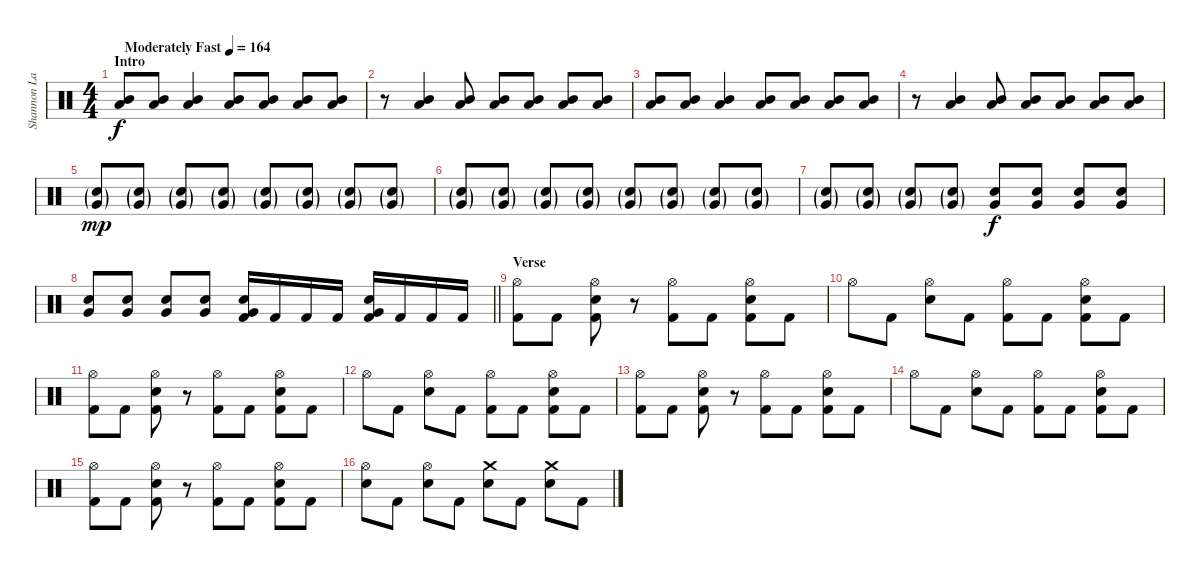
\track ("Shannon Larkin" "Shannon La") {instrument percussion}
\staff {score}
\articulation defaults
\ts (4 4)
\section ("" "Intro")
\tempo (164 "Moderately Fast")
\clef neutral
\ks c
("Mid Tom (hit)" "Low Tom (hit)").8{dy f} ("Mid Tom (hit)" "Low Tom (hit)").8 ("Mid Tom (hit)" "Low Tom (hit)").4 ("Mid Tom (hit)" "Low Tom (hit)").8 ("Mid Tom (hit)" "Low Tom (hit)").8 ("Mid Tom (hit)" "Low Tom (hit)").8 ("Mid Tom (hit)" "Low Tom (hit)").8 |
r.8 ("Mid Tom (hit)" "Low Tom (hit)").4 ("Mid Tom (hit)" "Low Tom (hit)").8 ("Mid Tom (hit)" "Low Tom (hit)").8 ("Mid Tom (hit)" "Low Tom (hit)").8 ("Mid Tom (hit)" "Low Tom (hit)").8 ("Mid Tom (hit)" "Low Tom (hit)").8 |
("Mid Tom (hit)" "Low Tom (hit)").8 ("Mid Tom (hit)" "Low Tom (hit)").8 ("Mid Tom (hit)" "Low Tom (hit)").4 ("Mid Tom (hit)" "Low Tom (hit)").8 ("Mid Tom (hit)" "Low Tom (hit)").8 ("Mid Tom (hit)" "Low Tom (hit)").8 ("Mid Tom (hit)" "Low Tom (hit)").8 |
r.8 ("Mid Tom (hit)" "Low Tom (hit)").4 ("Mid Tom (hit)" "Low Tom (hit)").8 ("Mid Tom (hit)" "Low Tom (hit)").8 ("Mid Tom (hit)" "Low Tom (hit)").8 ("Mid Tom (hit)" "Low Tom (hit)").8 ("Mid Tom (hit)" "Low Tom (hit)").8 |
("Electric Snare (hit)"{g} "Very Low Tom (hit)"{g}).8{dy mp} ("Electric Snare (hit)"{g} "Very Low Tom (hit)"{g}).8 ("Electric Snare (hit)"{g} "Very Low Tom (hit)"{g}).8 ("Electric Snare (hit)"{g} "Very Low Tom (hit)"{g}).8 ("Electric Snare (hit)"{g} "Very Low Tom (hit)"{g}).8 ("Electric Snare (hit)"{g} "Very Low Tom (hit)"{g}).8 ("Electric Snare (hit)"{g} "Very Low Tom (hit)"{g}).8 ("Electric Snare (hit)"{g} "Very Low Tom (hit)"{g}).8 |
("Electric Snare (hit)"{g} "Very Low Tom (hit)"{g}).8 ("Electric Snare (hit)"{g} "Very Low Tom (hit)"{g}).8 ("Electric Snare (hit)"{g} "Very Low Tom (hit)"{g}).8 ("Electric Snare (hit)"{g} "Very Low Tom (hit)"{g}).8 ("Electric Snare (hit)"{g} "Very Low Tom (hit)"{g}).8 ("Electric Snare (hit)"{g} "Very Low Tom (hit)"{g}).8 ("Electric Snare (hit)"{g} "Very Low Tom (hit)"{g}).8 ("Electric Snare (hit)"{g} "Very Low Tom (hit)"{g}).8 |
("Electric Snare (hit)"{g} "Very Low Tom (hit)"{g}).8 ("Electric Snare (hit)"{g} "Very Low Tom (hit)"{g}).8 ("Electric Snare (hit)"{g} "Very Low Tom (hit)"{g}).8 ("Electric Snare (hit)"{g} "Very Low Tom (hit)"{g}).8 ("Electric Snare (hit)" "Very Low Tom (hit)").8{dy f} ("Electric Snare (hit)" "Very Low Tom (hit)").8 ("Electric Snare (hit)" "Very Low Tom (hit)").8 ("Electric Snare (hit)" "Very Low Tom (hit)").8 |
\barLineRight lightlight
("Electric Snare (hit)" "Very Low Tom (hit)").8 ("Electric Snare (hit)" "Very Low Tom (hit)").8 ("Electric Snare (hit)" "Very Low Tom (hit)").8 ("Electric Snare (hit)" "Very Low Tom (hit)").8 ("Electric Snare (hit)" "Very Low Tom (hit)" "Kick (hit) 2").16 "Kick (hit) 2".16 "Kick (hit) 2".16 "Kick (hit) 2".16 ("Electric Snare (hit)" "Very Low Tom (hit)" "Kick (hit) 2").16 "Kick (hit) 2".16 "Kick (hit) 2".16 "Kick (hit) 2".16 |
\section ("" "Verse")
("Hi-Hat (open)" "Kick (hit) 2").8 "Kick (hit) 2".8 ("Hi-Hat (open)" "Electric Snare (hit)" "Kick (hit) 2").8 r.8 ("Hi-Hat (open)" "Kick (hit) 2").8 "Kick (hit) 2".8 ("Hi-Hat (open)" "Electric Snare (hit)" "Kick (hit) 2").8 "Kick (hit) 2".8 |
"Hi-Hat (open)".8 "Kick (hit) 2".8 ("Hi-Hat (open)" "Electric Snare (hit)").8 "Kick (hit) 2".8 ("Hi-Hat (open)" "Kick (hit) 2").8 "Kick (hit) 2".8 ("Hi-Hat (open)" "Electric Snare (hit)" "Kick (hit) 2").8 "Kick (hit) 2".8 |
("Hi-Hat (open)" "Kick (hit) 2").8 "Kick (hit) 2".8 ("Hi-Hat (open)" "Electric Snare (hit)" "Kick (hit) 2").8 r.8 ("Hi-Hat (open)" "Kick (hit) 2").8 "Kick (hit) 2".8 ("Hi-Hat (open)" "Electric Snare (hit)" "Kick (hit) 2").8 "Kick (hit) 2".8 |
"Hi-Hat (open)".8 "Kick (hit) 2".8 ("Hi-Hat (open)" "Electric Snare (hit)").8 "Kick (hit) 2".8 ("Hi-Hat (open)" "Kick (hit) 2").8 "Kick (hit) 2".8 ("Hi-Hat (open)" "Electric Snare (hit)" "Kick (hit) 2").8 "Kick (hit) 2".8 |
("Hi-Hat (open)" "Kick (hit) 2").8 "Kick (hit) 2".8 ("Hi-Hat (open)" "Electric Snare (hit)" "Kick (hit) 2").8 r.8 ("Hi-Hat (open)" "Kick (hit) 2").8 "Kick (hit) 2".8 ("Hi-Hat (open)" "Electric Snare (hit)" "Kick (hit) 2").8 "Kick (hit) 2".8 |
"Hi-Hat (open)".8 "Kick (hit) 2".8 ("Hi-Hat (open)" "Electric Snare (hit)").8 "Kick (hit) 2".8 ("Hi-Hat (open)" "Kick (hit) 2").8 "Kick (hit) 2".8 ("Hi-Hat (open)" "Electric Snare (hit)" "Kick (hit) 2").8 "Kick (hit) 2".8 |
("Hi-Hat (open)" "Kick (hit) 2").8 "Kick (hit) 2".8 ("Hi-Hat (open)" "Electric Snare (hit)" "Kick (hit) 2").8 r.8 ("Hi-Hat (open)" "Kick (hit) 2").8 "Kick (hit) 2".8 ("Hi-Hat (open)" "Electric Snare (hit)" "Kick (hit) 2").8 "Kick (hit) 2".8 |
("Hi-Hat (open)" "Electric Snare (hit)").8 "Kick (hit) 2".8 ("Hi-Hat (open)" "Electric Snare (hit)").8 "Kick (hit) 2".8 ("Crash medium (hit)" "Electric Snare (hit)").8 "Kick (hit) 2".8 ("Crash medium (hit)" "Electric Snare (hit)").8 "Kick (hit) 2".8
